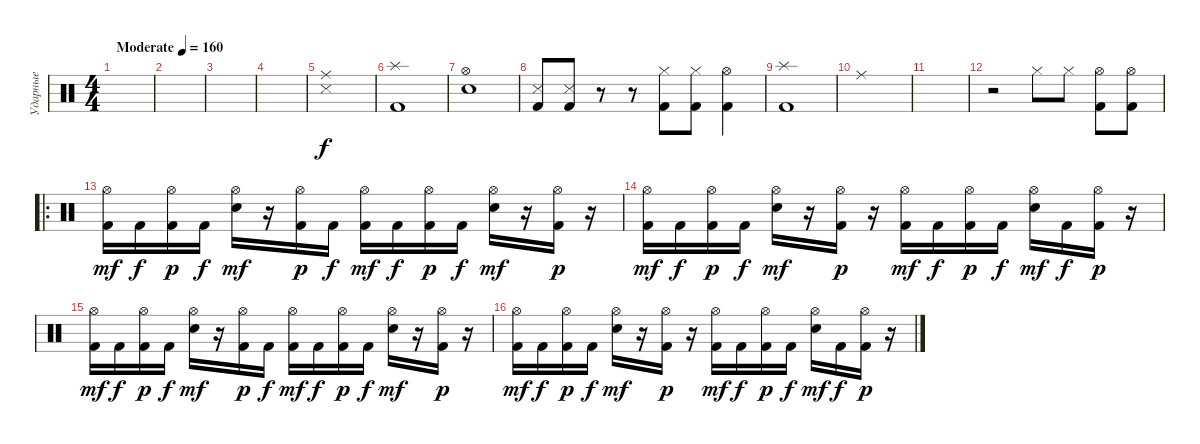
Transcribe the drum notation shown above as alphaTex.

\track ("Ударные" "Ударные") {instrument percussion}
\staff {score}
\articulation defaults
\ts (4 4)
\tempo (160 "Moderate")
\clef neutral
\ks c
|
|
|
|
("Ride (middle)" "Snare (side stick) 3").1 |
("Splash (hit)" "Kick (hit) 2").1 |
("Hi-Hat (open)" "Electric Snare (hit)").1 |
("Snare (side stick) 3" "Kick (hit) 2").8 ("Snare (side stick) 3" "Kick (hit) 2").8 r.8 r.8 ("Hi-Hat (closed)" "Kick (hit) 2").8 ("Hi-Hat (closed)" "Kick (hit) 2").8 ("Hi-Hat (open)" "Kick (hit) 2").4 |
("Splash (hit)" "Kick (hit) 2").1 |
"Ride (middle)".1 |
|
r.2 "Hi-Hat (closed)".8 "Hi-Hat (closed)".8 ("Hi-Hat (open)" "Kick (hit) 2").8 ("Hi-Hat (open)" "Kick (hit) 2").8 |
\ro
("Hi-Hat (open)" "Kick (hit) 2").16{dy mf} "Kick (hit) 2".16{dy f} ("Hi-Hat (open)" "Kick (hit) 2").16{dy p} "Kick (hit) 2".16{dy f} ("Hi-Hat (open)" "Electric Snare (hit)").16{dy mf} r.16 ("Hi-Hat (open)" "Kick (hit) 2").16{dy p} "Kick (hit) 2".16{dy f} ("Hi-Hat (open)" "Kick (hit) 2").16{dy mf} "Kick (hit) 2".16{dy f} ("Hi-Hat (open)" "Kick (hit) 2").16{dy p} "Kick (hit) 2".16{dy f} ("Hi-Hat (open)" "Electric Snare (hit)").16{dy mf} r.16 ("Hi-Hat (open)" "Kick (hit) 2").16{dy p} r.16 |
("Hi-Hat (open)" "Kick (hit) 2").16{dy mf} "Kick (hit) 2".16{dy f} ("Hi-Hat (open)" "Kick (hit) 2").16{dy p} "Kick (hit) 2".16{dy f} ("Hi-Hat (open)" "Electric Snare (hit)").16{dy mf} r.16 ("Hi-Hat (open)" "Kick (hit) 2").16{dy p} r.16 ("Hi-Hat (open)" "Kick (hit) 2").16{dy mf} "Kick (hit) 2".16{dy f} ("Hi-Hat (open)" "Kick (hit) 2").16{dy p} "Kick (hit) 2".16{dy f} ("Hi-Hat (open)" "Electric Snare (hit)").16{dy mf} "Kick (hit) 2".16{dy f} ("Hi-Hat (open)" "Kick (hit) 2").16{dy p} r.16 |
("Hi-Hat (open)" "Kick (hit) 2").16{dy mf} "Kick (hit) 2".16{dy f} ("Hi-Hat (open)" "Kick (hit) 2").16{dy p} "Kick (hit) 2".16{dy f} ("Hi-Hat (open)" "Electric Snare (hit)").16{dy mf} r.16 ("Hi-Hat (open)" "Kick (hit) 2").16{dy p} "Kick (hit) 2".16{dy f} ("Hi-Hat (open)" "Kick (hit) 2").16{dy mf} "Kick (hit) 2".16{dy f} ("Hi-Hat (open)" "Kick (hit) 2").16{dy p} "Kick (hit) 2".16{dy f} ("Hi-Hat (open)" "Electric Snare (hit)").16{dy mf} r.16 ("Hi-Hat (open)" "Kick (hit) 2").16{dy p} r.16 |
("Hi-Hat (open)" "Kick (hit) 2").16{dy mf} "Kick (hit) 2".16{dy f} ("Hi-Hat (open)" "Kick (hit) 2").16{dy p} "Kick (hit) 2".16{dy f} ("Hi-Hat (open)" "Electric Snare (hit)").16{dy mf} r.16 ("Hi-Hat (open)" "Kick (hit) 2").16{dy p} r.16 ("Hi-Hat (open)" "Kick (hit) 2").16{dy mf} "Kick (hit) 2".16{dy f} ("Hi-Hat (open)" "Kick (hit) 2").16{dy p} "Kick (hit) 2".16{dy f} ("Hi-Hat (open)" "Electric Snare (hit)").16{dy mf} "Kick (hit) 2".16{dy f} ("Hi-Hat (open)" "Kick (hit) 2").16{dy p} r.16
